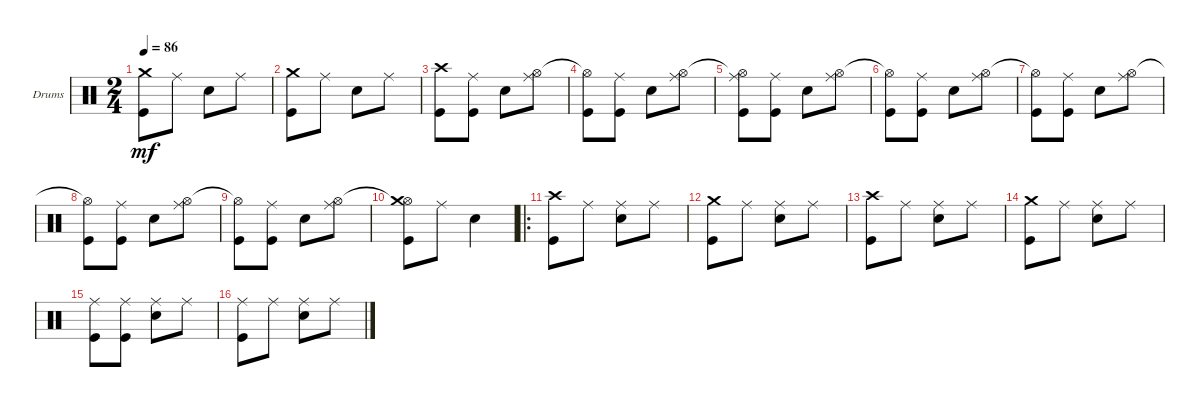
\bracketExtendMode groupsimilarinstruments
\firstSystemTrackNameOrientation horizontal
\otherSystemsTrackNameOrientation horizontal
\track ("Drumkit" "Drums") {instrument percussion}
\staff {score}
\articulation defaults
\ts (2 4)
\tempo 86
\clef neutral
\scale
0.333333
\ks c
("Kick (hit)" "Crash medium (hit)"{t}).8{dy mf} "Ride (middle)".8 "Snare (hit) 2".8 "Ride (middle)".8 |
\scale
0.333333 ("Kick (hit)" "Crash medium (hit)").8 "Ride (middle)".8 "Snare (hit) 2".8 "Ride (middle)".8 |
\scale
0.333333 ("Kick (hit)" "Crash high (hit)").8 ("Kick (hit)" "Ride (middle)").8 "Snare (hit) 2".8 ("Ride (middle)" "Hi-Hat (open)").8 |
\scale
0.333333 ("Kick (hit)" "Hi-Hat (open)"{t}).8 ("Kick (hit)" "Ride (middle)").8 "Snare (hit) 2".8 ("Ride (middle)" "Hi-Hat (open)").8 |
\scale
0.333333 ("Kick (hit)" "Hi-Hat (open)"{t} "Ride (middle)").8 ("Kick (hit)" "Ride (middle)").8 "Snare (hit) 2".8 ("Ride (middle)" "Hi-Hat (open)").8 |
\scale
0.333333 ("Kick (hit)" "Hi-Hat (open)"{t}).8 ("Kick (hit)" "Ride (middle)").8 "Snare (hit) 2".8 ("Ride (middle)" "Hi-Hat (open)").8 |
\scale
0.333333 ("Kick (hit)" "Hi-Hat (open)"{t}).8 ("Kick (hit)" "Ride (middle)").8 "Snare (hit) 2".8 ("Ride (middle)" "Hi-Hat (open)").8 |
\scale
0.333333 ("Kick (hit)" "Hi-Hat (open)"{t}).8 ("Kick (hit)" "Ride (middle)").8 "Snare (hit) 2".8 ("Ride (middle)" "Hi-Hat (open)").8 |
\scale
0.333333 ("Kick (hit)" "Hi-Hat (open)"{t}).8 ("Kick (hit)" "Ride (middle)").8 "Snare (hit) 2".8 ("Ride (middle)" "Hi-Hat (open)").8 |
\scale
0.311475 ("Kick (hit)" "Hi-Hat (open)"{t} "Crash medium (hit)").8 "Ride (middle)".8 "Snare (hit) 2".4 |
\ro
\scale
0.377049 ("Crash high (hit)" "Kick (hit)").8 "Ride (middle)".8 ("Snare (hit) 2" "Ride (middle)").8 "Ride (middle)".8 |
\scale
0.311475 ("Kick (hit)" "Crash medium (hit)").8 "Ride (middle)".8 ("Snare (hit) 2" "Ride (middle)").8 "Ride (middle)".8 |
\scale
0.333333 ("Kick (hit)" "Crash high (hit)").8 "Ride (middle)".8 ("Snare (hit) 2" "Ride (middle)").8 "Ride (middle)".8 |
\scale
0.333333 ("Kick (hit)" "Crash medium (hit)").8 "Ride (middle)".8 ("Snare (hit) 2" "Ride (middle)").8 "Ride (middle)".8 |
\scale
0.333333 ("Ride (middle)" "Kick (hit)").8 ("Ride (middle)" "Kick (hit)").8 ("Snare (hit) 2" "Ride (middle)").8 "Ride (middle)".8 |
\scale
0.322034 ("Ride (middle)" "Kick (hit)").8 "Ride (middle)".8 ("Snare (hit) 2" "Ride (middle)").8 "Ride (middle)".8
